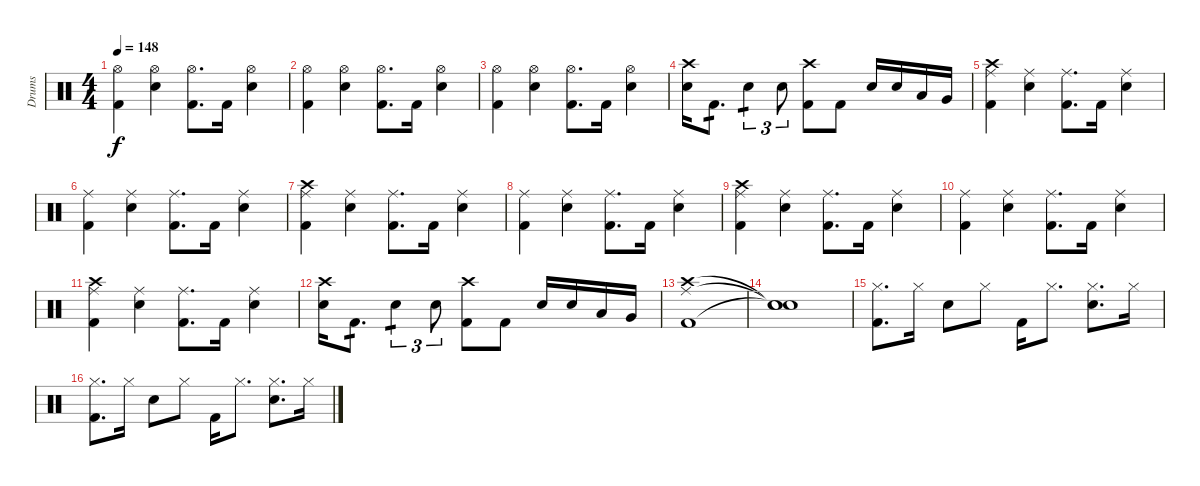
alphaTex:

\track ("Drums" "Drums") {instrument percussion}
\staff {score}
\articulation defaults
\ts (4 4)
\tempo 148
\clef neutral
\ks c
("Hi-Hat (open)" "Kick (hit) 2").4{dy f} ("Hi-Hat (open)" "Electric Snare (hit)").4 ("Hi-Hat (open)" "Kick (hit) 2").8{d} "Kick (hit) 2".16 ("Hi-Hat (open)" "Electric Snare (hit)").4 |
("Hi-Hat (open)" "Kick (hit) 2").4 ("Hi-Hat (open)" "Electric Snare (hit)").4 ("Hi-Hat (open)" "Kick (hit) 2").8{d} "Kick (hit) 2".16 ("Hi-Hat (open)" "Electric Snare (hit)").4 |
("Hi-Hat (open)" "Kick (hit) 2").4 ("Hi-Hat (open)" "Electric Snare (hit)").4 ("Hi-Hat (open)" "Kick (hit) 2").8{d} "Kick (hit) 2".16 ("Hi-Hat (open)" "Electric Snare (hit)").4 |
("Crash high (hit)" "Electric Snare (hit)").16 "Kick (hit) 2".8{d tp 1} "Electric Snare (hit)".4{tu (3 2) tp 1} "Electric Snare (hit)".8{tu (3 2)} ("Crash high (hit)" "Kick (hit) 2").8 "Kick (hit) 2".8 "Electric Snare (hit)".16 "Electric Snare (hit)".16 "Low Tom (hit)".16 "Very Low Tom (hit)".16 |
("Crash high (hit)" "Ride (middle)" "Kick (hit) 2").4 ("Ride (middle)" "Electric Snare (hit)").4 ("Ride (middle)" "Kick (hit) 2").8{d} "Kick (hit) 2".16 ("Ride (middle)" "Electric Snare (hit)").4 |
("Ride (middle)" "Kick (hit) 2").4 ("Ride (middle)" "Electric Snare (hit)").4 ("Ride (middle)" "Kick (hit) 2").8{d} "Kick (hit) 2".16 ("Ride (middle)" "Electric Snare (hit)").4 |
("Crash high (hit)" "Ride (middle)" "Kick (hit) 2").4 ("Ride (middle)" "Electric Snare (hit)").4 ("Ride (middle)" "Kick (hit) 2").8{d} "Kick (hit) 2".16 ("Ride (middle)" "Electric Snare (hit)").4 |
("Ride (middle)" "Kick (hit) 2").4 ("Ride (middle)" "Electric Snare (hit)").4 ("Ride (middle)" "Kick (hit) 2").8{d} "Kick (hit) 2".16 ("Ride (middle)" "Electric Snare (hit)").4 |
("Crash high (hit)" "Ride (middle)" "Kick (hit) 2").4 ("Ride (middle)" "Electric Snare (hit)").4 ("Ride (middle)" "Kick (hit) 2").8{d} "Kick (hit) 2".16 ("Ride (middle)" "Electric Snare (hit)").4 |
("Ride (middle)" "Kick (hit) 2").4 ("Ride (middle)" "Electric Snare (hit)").4 ("Ride (middle)" "Kick (hit) 2").8{d} "Kick (hit) 2".16 ("Ride (middle)" "Electric Snare (hit)").4 |
("Crash high (hit)" "Ride (middle)" "Kick (hit) 2").4 ("Ride (middle)" "Electric Snare (hit)").4 ("Ride (middle)" "Kick (hit) 2").8{d} "Kick (hit) 2".16 ("Ride (middle)" "Electric Snare (hit)").4 |
("Crash high (hit)" "Electric Snare (hit)").16 "Kick (hit) 2".8{d tp 1} "Electric Snare (hit)".4{tu (3 2) tp 1} "Electric Snare (hit)".8{tu (3 2)} ("Crash high (hit)" "Kick (hit) 2").8 "Kick (hit) 2".8 "Electric Snare (hit)".16 "Electric Snare (hit)".16 "Low Tom (hit)".16 "Very Low Tom (hit)".16 |
("Crash high (hit)" "Ride (middle)" "Kick (hit) 2").1 |
("Snare (hit)"{t} "Snare (hit)"{t} "Snare (hit)"{t}).1 |
("Hi-Hat (closed)" "Kick (hit) 2").8{d} "Hi-Hat (closed)".16 "Electric Snare (hit)".8 "Hi-Hat (closed)".8 "Kick (hit) 2".16 "Hi-Hat (closed)".8{d} ("Hi-Hat (closed)" "Electric Snare (hit)").8{d} "Hi-Hat (closed)".16 |
("Hi-Hat (closed)" "Kick (hit) 2").8{d} "Hi-Hat (closed)".16 "Electric Snare (hit)".8 "Hi-Hat (closed)".8 "Kick (hit) 2".16 "Hi-Hat (closed)".8{d} ("Hi-Hat (closed)" "Electric Snare (hit)").8{d} "Hi-Hat (closed)".16
